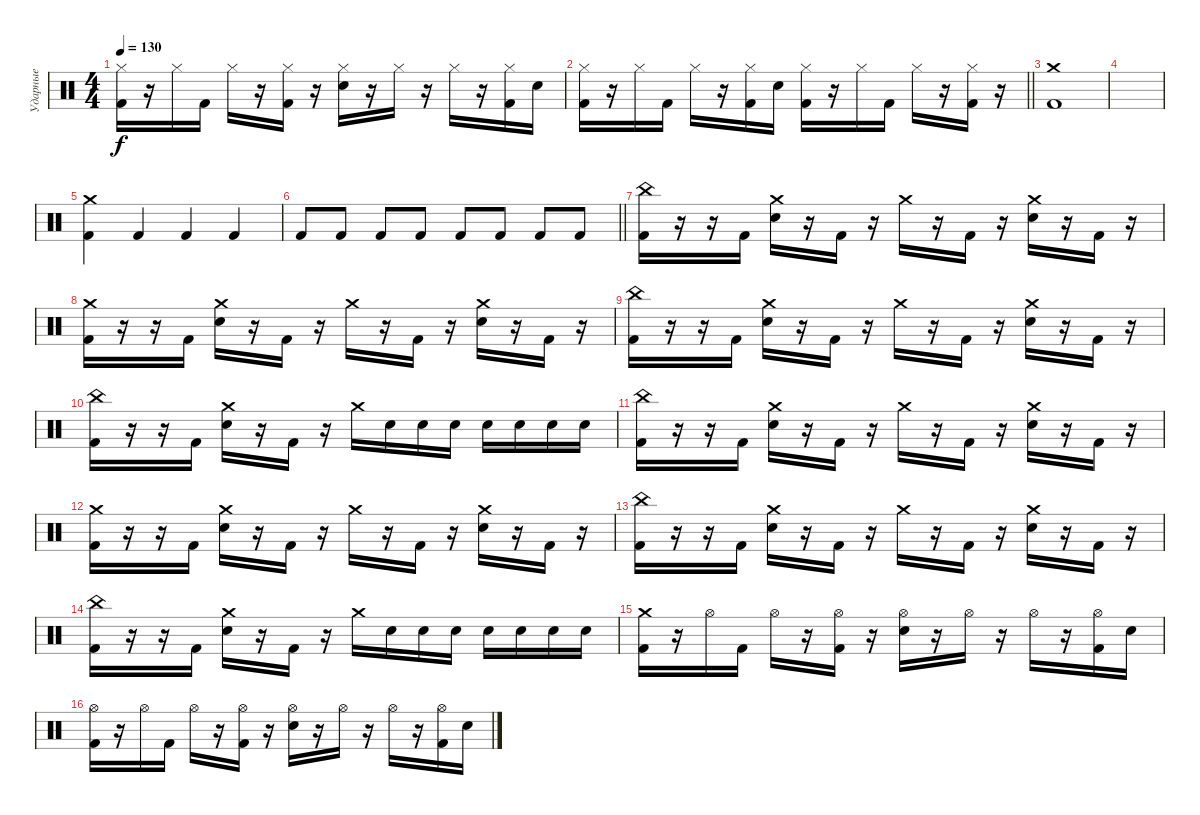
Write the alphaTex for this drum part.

\track ("Ударные" "Ударные") {instrument percussion}
\staff {score}
\articulation defaults
\ts (4 4)
\tempo 130
\clef neutral
\ks c
("Hi-Hat (closed)" "Kick (hit) 2").16{dy f} r.16 "Hi-Hat (closed)".16 "Kick (hit) 2".16 "Hi-Hat (closed)".16 r.16 ("Hi-Hat (closed)" "Kick (hit) 2").16 r.16 ("Hi-Hat (closed)" "Electric Snare (hit)").16 r.16 "Hi-Hat (closed)".16 r.16 "Hi-Hat (closed)".16 r.16 ("Hi-Hat (closed)" "Kick (hit) 2").16 "Electric Snare (hit)".16 |
\barLineRight lightlight
("Hi-Hat (closed)" "Kick (hit) 2").16 r.16 "Hi-Hat (closed)".16 "Kick (hit) 2".16 "Hi-Hat (closed)".16 r.16 ("Hi-Hat (closed)" "Kick (hit) 2").16 "Electric Snare (hit)".16 ("Hi-Hat (closed)" "Kick (hit) 2").16 r.16 "Hi-Hat (closed)".16 "Kick (hit) 2".16 "Hi-Hat (closed)".16 r.16 ("Hi-Hat (closed)" "Kick (hit) 2").16 r.16 |
\section ("" "")
("Crash medium (hit)" "Kick (hit) 2").1 |
|
("Crash medium (hit)" "Kick (hit) 2").4 "Kick (hit) 2".4 "Kick (hit) 2".4 "Kick (hit) 2".4 |
\barLineRight lightlight "Kick (hit) 2".8 "Kick (hit) 2".8 "Kick (hit) 2".8 "Kick (hit) 2".8 "Kick (hit) 2".8 "Kick (hit) 2".8 "Kick (hit) 2".8 "Kick (hit) 2".8
|
\section ("" "")
("China (hit)" "Kick (hit) 2").16 r.16 r.16 "Kick (hit) 2".16 ("Crash medium (hit)" "Electric Snare (hit)").16 r.16 "Kick (hit) 2".16 r.16 "Crash medium (hit)".16 r.16 "Kick (hit) 2".16 r.16 ("Crash medium (hit)" "Electric Snare (hit)").16 r.16 "Kick (hit) 2".16 r.16 |
("Crash medium (hit)" "Kick (hit) 2").16 r.16 r.16 "Kick (hit) 2".16 ("Crash medium (hit)" "Electric Snare (hit)").16 r.16 "Kick (hit) 2".16 r.16 "Crash medium (hit)".16 r.16 "Kick (hit) 2".16 r.16 ("Crash medium (hit)" "Electric Snare (hit)").16 r.16 "Kick (hit) 2".16 r.16 |
("China (hit)" "Kick (hit) 2").16 r.16 r.16 "Kick (hit) 2".16 ("Crash medium (hit)" "Electric Snare (hit)").16 r.16 "Kick (hit) 2".16 r.16 "Crash medium (hit)".16 r.16 "Kick (hit) 2".16 r.16 ("Crash medium (hit)" "Electric Snare (hit)").16 r.16 "Kick (hit) 2".16 r.16 |
("China (hit)" "Kick (hit) 2").16 r.16 r.16 "Kick (hit) 2".16 ("Crash medium (hit)" "Electric Snare (hit)").16 r.16 "Kick (hit) 2".16 r.16 "Crash medium (hit)".16 "Electric Snare (hit)".16 "Electric Snare (hit)".16 "Electric Snare (hit)".16 "Electric Snare (hit)".16 "Electric Snare (hit)".16 "Electric Snare (hit)".16 "Electric Snare (hit)".16 |
("China (hit)" "Kick (hit) 2").16 r.16 r.16 "Kick (hit) 2".16 ("Crash medium (hit)" "Electric Snare (hit)").16 r.16 "Kick (hit) 2".16 r.16 "Crash medium (hit)".16 r.16 "Kick (hit) 2".16 r.16 ("Crash medium (hit)" "Electric Snare (hit)").16 r.16 "Kick (hit) 2".16 r.16 |
("Crash medium (hit)" "Kick (hit) 2").16 r.16 r.16 "Kick (hit) 2".16 ("Crash medium (hit)" "Electric Snare (hit)").16 r.16 "Kick (hit) 2".16 r.16 "Crash medium (hit)".16 r.16 "Kick (hit) 2".16 r.16 ("Crash medium (hit)" "Electric Snare (hit)").16 r.16 "Kick (hit) 2".16 r.16 |
("China (hit)" "Kick (hit) 2").16 r.16 r.16 "Kick (hit) 2".16 ("Crash medium (hit)" "Electric Snare (hit)").16 r.16 "Kick (hit) 2".16 r.16 "Crash medium (hit)".16 r.16 "Kick (hit) 2".16 r.16 ("Crash medium (hit)" "Electric Snare (hit)").16 r.16 "Kick (hit) 2".16 r.16 |
("China (hit)" "Kick (hit) 2").16 r.16 r.16 "Kick (hit) 2".16 ("Crash medium (hit)" "Electric Snare (hit)").16 r.16 "Kick (hit) 2".16 r.16 "Crash medium (hit)".16 "Electric Snare (hit)".16 "Electric Snare (hit)".16 "Electric Snare (hit)".16 "Electric Snare (hit)".16 "Electric Snare (hit)".16 "Electric Snare (hit)".16 "Electric Snare (hit)".16 |
("Crash medium (hit)" "Kick (hit) 2").16 r.16 "Hi-Hat (open)".16 "Kick (hit) 2".16 "Hi-Hat (open)".16 r.16 ("Hi-Hat (open)" "Kick (hit) 2").16 r.16 ("Hi-Hat (open)" "Electric Snare (hit)").16 r.16 "Hi-Hat (open)".16 r.16 "Hi-Hat (open)".16 r.16 ("Hi-Hat (open)" "Kick (hit) 2").16 "Electric Snare (hit)".16 |
("Hi-Hat (open)" "Kick (hit) 2").16 r.16 "Hi-Hat (open)".16 "Kick (hit) 2".16 "Hi-Hat (open)".16 r.16 ("Hi-Hat (open)" "Kick (hit) 2").16 r.16 ("Hi-Hat (open)" "Electric Snare (hit)").16 r.16 "Hi-Hat (open)".16 r.16 "Hi-Hat (open)".16 r.16 ("Hi-Hat (open)" "Kick (hit) 2").16 "Electric Snare (hit)".16
